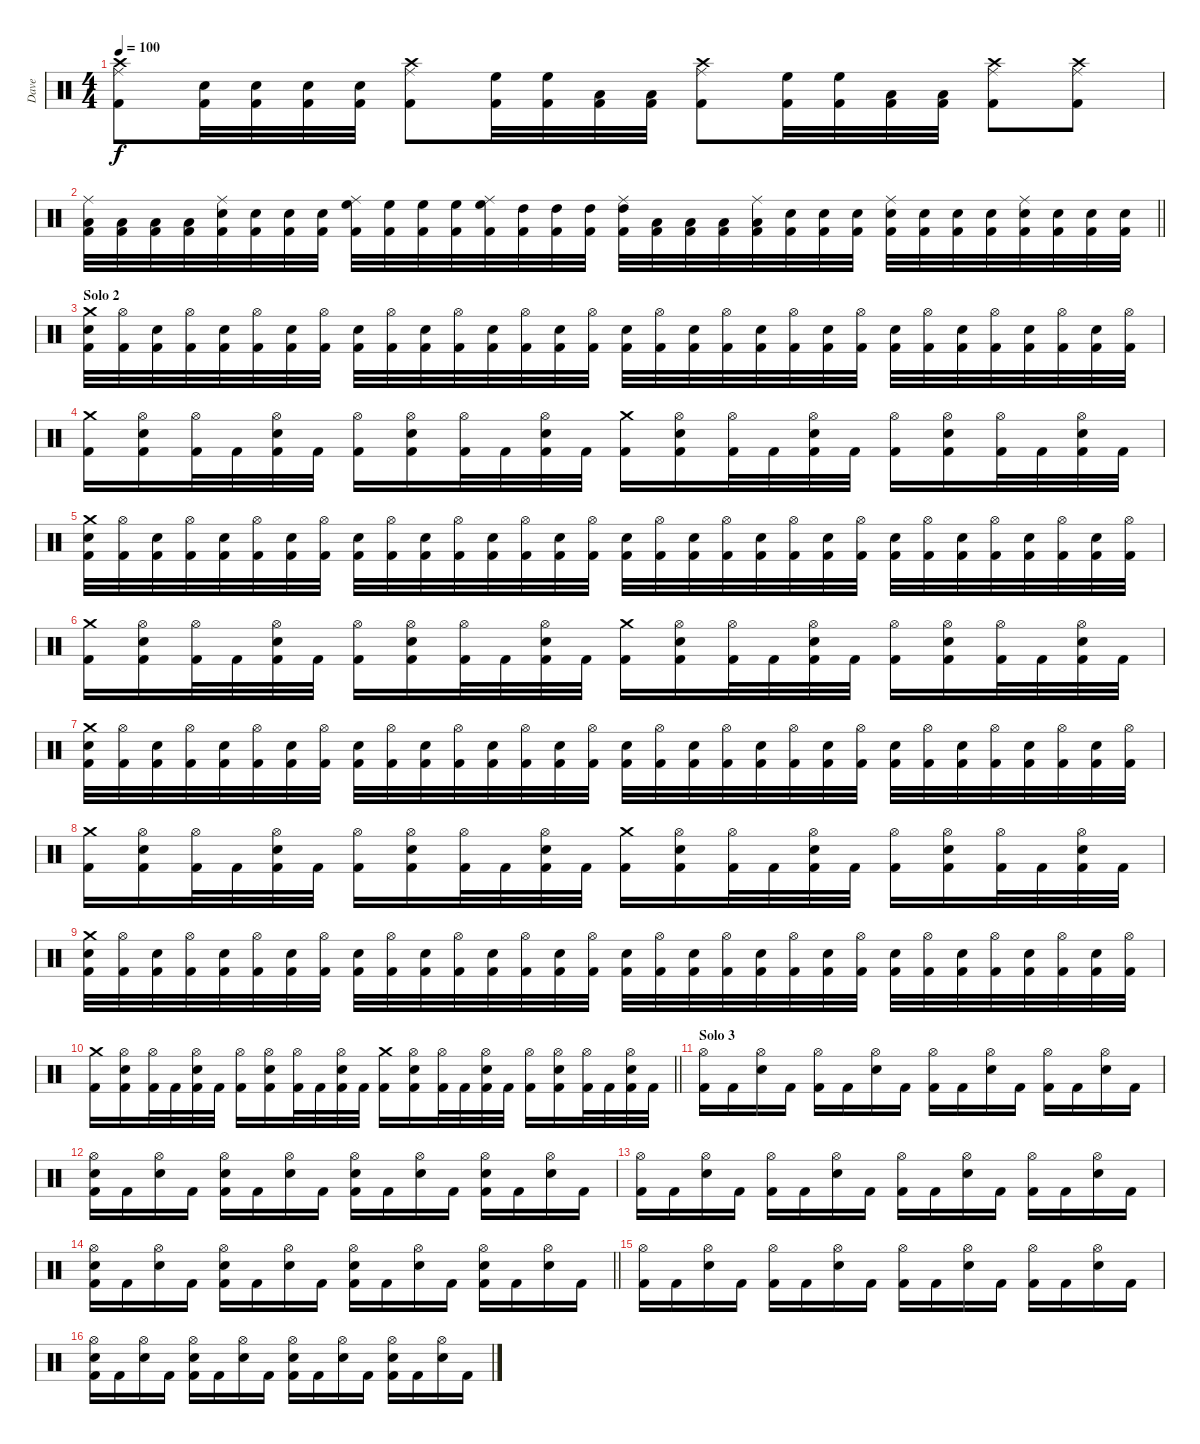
\track ("Dave" "Dave") {instrument percussion}
\staff {score}
\articulation defaults
\ts (4 4)
\tempo 100
\clef neutral
\ks c
("Ride (middle)" "Crash high (hit)" "Kick (hit) 2").8{dy f} ("Snare (hit) 2" "Kick (hit) 2").32 ("Snare (hit) 2" "Kick (hit) 2").32 ("Snare (hit) 2" "Kick (hit) 2").32 ("Snare (hit) 2" "Kick (hit) 2").32 ("Ride (middle)" "Crash high (hit)" "Kick (hit) 2").8 ("High Floor Tom (hit)" "Kick (hit) 2").32 ("High Floor Tom (hit)" "Kick (hit) 2").32 ("Low Floor Tom (hit)" "Kick (hit) 2").32 ("Low Floor Tom (hit)" "Kick (hit) 2").32 ("Ride (middle)" "Crash high (hit)" "Kick (hit) 2").8 ("High Floor Tom (hit)" "Kick (hit) 2").32 ("High Floor Tom (hit)" "Kick (hit) 2").32 ("Low Floor Tom (hit)" "Kick (hit) 2").32 ("Low Floor Tom (hit)" "Kick (hit) 2").32 ("Ride (middle)" "Crash high (hit)" "Kick (hit) 2").8 ("Ride (middle)" "Crash high (hit)" "Kick (hit) 2").8 |
\barLineRight lightlight
("Ride (middle)" "Low Floor Tom (hit)" "Kick (hit) 2").32 ("Low Floor Tom (hit)" "Kick (hit) 2").32 ("Low Floor Tom (hit)" "Kick (hit) 2").32 ("Low Floor Tom (hit)" "Kick (hit) 2").32 ("Ride (middle)" "Snare (hit) 2" "Kick (hit) 2").32 ("Snare (hit) 2" "Kick (hit) 2").32 ("Snare (hit) 2" "Kick (hit) 2").32 ("Snare (hit) 2" "Kick (hit) 2").32 ("Ride (middle)" "High Floor Tom (hit)" "Kick (hit) 2").32 ("High Floor Tom (hit)" "Kick (hit) 2").32 ("High Floor Tom (hit)" "Kick (hit) 2").32 ("High Floor Tom (hit)" "Kick (hit) 2").32 ("Ride (middle)" "High Floor Tom (hit)" "Kick (hit) 2").32 ("High Tom (hit)" "Kick (hit) 2").32 ("High Tom (hit)" "Kick (hit) 2").32 ("High Tom (hit)" "Kick (hit) 2").32 ("Ride (middle)" "High Tom (hit)" "Kick (hit) 2").32 ("Low Floor Tom (hit)" "Kick (hit) 2").32 ("Low Floor Tom (hit)" "Kick (hit) 2").32 ("Low Floor Tom (hit)" "Kick (hit) 2").32 ("Ride (middle)" "Low Floor Tom (hit)" "Kick (hit) 2").32 ("Snare (hit) 2" "Kick (hit) 2").32 ("Snare (hit) 2" "Kick (hit) 2").32 ("Snare (hit) 2" "Kick (hit) 2").32 ("Ride (middle)" "Snare (hit) 2" "Kick (hit) 2").32 ("Snare (hit) 2" "Kick (hit) 2").32 ("Snare (hit) 2" "Kick (hit) 2").32 ("Snare (hit) 2" "Kick (hit) 2").32 ("Ride (middle)" "Snare (hit) 2" "Kick (hit) 2").32 ("Snare (hit) 2" "Kick (hit) 2").32 ("Snare (hit) 2" "Kick (hit) 2").32 ("Snare (hit) 2" "Kick (hit) 2").32 |
\section ("" "Solo 2")
("Crash medium (hit)" "Snare (hit) 2" "Kick (hit) 2").32 ("Hi-Hat (open)" "Kick (hit) 2").32 ("Snare (hit) 2" "Kick (hit) 2").32 ("Hi-Hat (open)" "Kick (hit) 2").32 ("Snare (hit) 2" "Kick (hit) 2").32 ("Hi-Hat (open)" "Kick (hit) 2").32 ("Snare (hit) 2" "Kick (hit) 2").32 ("Hi-Hat (open)" "Kick (hit) 2").32 ("Snare (hit) 2" "Kick (hit) 2").32 ("Hi-Hat (open)" "Kick (hit) 2").32 ("Snare (hit) 2" "Kick (hit) 2").32 ("Hi-Hat (open)" "Kick (hit) 2").32 ("Snare (hit) 2" "Kick (hit) 2").32 ("Hi-Hat (open)" "Kick (hit) 2").32 ("Snare (hit) 2" "Kick (hit) 2").32 ("Hi-Hat (open)" "Kick (hit) 2").32 ("Snare (hit) 2" "Kick (hit) 2").32 ("Hi-Hat (open)" "Kick (hit) 2").32 ("Snare (hit) 2" "Kick (hit) 2").32 ("Hi-Hat (open)" "Kick (hit) 2").32 ("Snare (hit) 2" "Kick (hit) 2").32 ("Hi-Hat (open)" "Kick (hit) 2").32 ("Snare (hit) 2" "Kick (hit) 2").32 ("Hi-Hat (open)" "Kick (hit) 2").32 ("Snare (hit) 2" "Kick (hit) 2").32 ("Hi-Hat (open)" "Kick (hit) 2").32 ("Snare (hit) 2" "Kick (hit) 2").32 ("Hi-Hat (open)" "Kick (hit) 2").32 ("Snare (hit) 2" "Kick (hit) 2").32 ("Hi-Hat (open)" "Kick (hit) 2").32 ("Snare (hit) 2" "Kick (hit) 2").32 ("Hi-Hat (open)" "Kick (hit) 2").32 |
("Crash medium (hit)" "Kick (hit) 2").16 ("Hi-Hat (open)" "Snare (hit) 2" "Kick (hit) 2").16 ("Hi-Hat (open)" "Kick (hit) 2").32 "Kick (hit) 2".32 ("Hi-Hat (open)" "Snare (hit) 2" "Kick (hit) 2").32 "Kick (hit) 2".32 ("Hi-Hat (open)" "Kick (hit) 2").16 ("Hi-Hat (open)" "Snare (hit) 2" "Kick (hit) 2").16 ("Hi-Hat (open)" "Kick (hit) 2").32 "Kick (hit) 2".32 ("Hi-Hat (open)" "Snare (hit) 2" "Kick (hit) 2").32 "Kick (hit) 2".32 ("Crash medium (hit)" "Kick (hit) 2").16 ("Hi-Hat (open)" "Snare (hit) 2" "Kick (hit) 2").16 ("Hi-Hat (open)" "Kick (hit) 2").32 "Kick (hit) 2".32 ("Hi-Hat (open)" "Snare (hit) 2" "Kick (hit) 2").32 "Kick (hit) 2".32 ("Hi-Hat (open)" "Kick (hit) 2").16 ("Hi-Hat (open)" "Snare (hit) 2" "Kick (hit) 2").16 ("Hi-Hat (open)" "Kick (hit) 2").32 "Kick (hit) 2".32 ("Hi-Hat (open)" "Snare (hit) 2" "Kick (hit) 2").32 "Kick (hit) 2".32 |
("Crash medium (hit)" "Snare (hit) 2" "Kick (hit) 2").32 ("Hi-Hat (open)" "Kick (hit) 2").32 ("Snare (hit) 2" "Kick (hit) 2").32 ("Hi-Hat (open)" "Kick (hit) 2").32 ("Snare (hit) 2" "Kick (hit) 2").32 ("Hi-Hat (open)" "Kick (hit) 2").32 ("Snare (hit) 2" "Kick (hit) 2").32 ("Hi-Hat (open)" "Kick (hit) 2").32 ("Snare (hit) 2" "Kick (hit) 2").32 ("Hi-Hat (open)" "Kick (hit) 2").32 ("Snare (hit) 2" "Kick (hit) 2").32 ("Hi-Hat (open)" "Kick (hit) 2").32 ("Snare (hit) 2" "Kick (hit) 2").32 ("Hi-Hat (open)" "Kick (hit) 2").32 ("Snare (hit) 2" "Kick (hit) 2").32 ("Hi-Hat (open)" "Kick (hit) 2").32 ("Snare (hit) 2" "Kick (hit) 2").32 ("Hi-Hat (open)" "Kick (hit) 2").32 ("Snare (hit) 2" "Kick (hit) 2").32 ("Hi-Hat (open)" "Kick (hit) 2").32 ("Snare (hit) 2" "Kick (hit) 2").32 ("Hi-Hat (open)" "Kick (hit) 2").32 ("Snare (hit) 2" "Kick (hit) 2").32 ("Hi-Hat (open)" "Kick (hit) 2").32 ("Snare (hit) 2" "Kick (hit) 2").32 ("Hi-Hat (open)" "Kick (hit) 2").32 ("Snare (hit) 2" "Kick (hit) 2").32 ("Hi-Hat (open)" "Kick (hit) 2").32 ("Snare (hit) 2" "Kick (hit) 2").32 ("Hi-Hat (open)" "Kick (hit) 2").32 ("Snare (hit) 2" "Kick (hit) 2").32 ("Hi-Hat (open)" "Kick (hit) 2").32 |
("Crash medium (hit)" "Kick (hit) 2").16 ("Hi-Hat (open)" "Snare (hit) 2" "Kick (hit) 2").16 ("Hi-Hat (open)" "Kick (hit) 2").32 "Kick (hit) 2".32 ("Hi-Hat (open)" "Snare (hit) 2" "Kick (hit) 2").32 "Kick (hit) 2".32 ("Hi-Hat (open)" "Kick (hit) 2").16 ("Hi-Hat (open)" "Snare (hit) 2" "Kick (hit) 2").16 ("Hi-Hat (open)" "Kick (hit) 2").32 "Kick (hit) 2".32 ("Hi-Hat (open)" "Snare (hit) 2" "Kick (hit) 2").32 "Kick (hit) 2".32 ("Crash medium (hit)" "Kick (hit) 2").16 ("Hi-Hat (open)" "Snare (hit) 2" "Kick (hit) 2").16 ("Hi-Hat (open)" "Kick (hit) 2").32 "Kick (hit) 2".32 ("Hi-Hat (open)" "Snare (hit) 2" "Kick (hit) 2").32 "Kick (hit) 2".32 ("Hi-Hat (open)" "Kick (hit) 2").16 ("Hi-Hat (open)" "Snare (hit) 2" "Kick (hit) 2").16 ("Hi-Hat (open)" "Kick (hit) 2").32 "Kick (hit) 2".32 ("Hi-Hat (open)" "Snare (hit) 2" "Kick (hit) 2").32 "Kick (hit) 2".32 |
("Crash medium (hit)" "Snare (hit) 2" "Kick (hit) 2").32 ("Hi-Hat (open)" "Kick (hit) 2").32 ("Snare (hit) 2" "Kick (hit) 2").32 ("Hi-Hat (open)" "Kick (hit) 2").32 ("Snare (hit) 2" "Kick (hit) 2").32 ("Hi-Hat (open)" "Kick (hit) 2").32 ("Snare (hit) 2" "Kick (hit) 2").32 ("Hi-Hat (open)" "Kick (hit) 2").32 ("Snare (hit) 2" "Kick (hit) 2").32 ("Hi-Hat (open)" "Kick (hit) 2").32 ("Snare (hit) 2" "Kick (hit) 2").32 ("Hi-Hat (open)" "Kick (hit) 2").32 ("Snare (hit) 2" "Kick (hit) 2").32 ("Hi-Hat (open)" "Kick (hit) 2").32 ("Snare (hit) 2" "Kick (hit) 2").32 ("Hi-Hat (open)" "Kick (hit) 2").32 ("Snare (hit) 2" "Kick (hit) 2").32 ("Hi-Hat (open)" "Kick (hit) 2").32 ("Snare (hit) 2" "Kick (hit) 2").32 ("Hi-Hat (open)" "Kick (hit) 2").32 ("Snare (hit) 2" "Kick (hit) 2").32 ("Hi-Hat (open)" "Kick (hit) 2").32 ("Snare (hit) 2" "Kick (hit) 2").32 ("Hi-Hat (open)" "Kick (hit) 2").32 ("Snare (hit) 2" "Kick (hit) 2").32 ("Hi-Hat (open)" "Kick (hit) 2").32 ("Snare (hit) 2" "Kick (hit) 2").32 ("Hi-Hat (open)" "Kick (hit) 2").32 ("Snare (hit) 2" "Kick (hit) 2").32 ("Hi-Hat (open)" "Kick (hit) 2").32 ("Snare (hit) 2" "Kick (hit) 2").32 ("Hi-Hat (open)" "Kick (hit) 2").32 |
("Crash medium (hit)" "Kick (hit) 2").16 ("Hi-Hat (open)" "Snare (hit) 2" "Kick (hit) 2").16 ("Hi-Hat (open)" "Kick (hit) 2").32 "Kick (hit) 2".32 ("Hi-Hat (open)" "Snare (hit) 2" "Kick (hit) 2").32 "Kick (hit) 2".32 ("Hi-Hat (open)" "Kick (hit) 2").16 ("Hi-Hat (open)" "Snare (hit) 2" "Kick (hit) 2").16 ("Hi-Hat (open)" "Kick (hit) 2").32 "Kick (hit) 2".32 ("Hi-Hat (open)" "Snare (hit) 2" "Kick (hit) 2").32 "Kick (hit) 2".32 ("Crash medium (hit)" "Kick (hit) 2").16 ("Hi-Hat (open)" "Snare (hit) 2" "Kick (hit) 2").16 ("Hi-Hat (open)" "Kick (hit) 2").32 "Kick (hit) 2".32 ("Hi-Hat (open)" "Snare (hit) 2" "Kick (hit) 2").32 "Kick (hit) 2".32 ("Hi-Hat (open)" "Kick (hit) 2").16 ("Hi-Hat (open)" "Snare (hit) 2" "Kick (hit) 2").16 ("Hi-Hat (open)" "Kick (hit) 2").32 "Kick (hit) 2".32 ("Hi-Hat (open)" "Snare (hit) 2" "Kick (hit) 2").32 "Kick (hit) 2".32 |
("Crash medium (hit)" "Snare (hit) 2" "Kick (hit) 2").32 ("Hi-Hat (open)" "Kick (hit) 2").32 ("Snare (hit) 2" "Kick (hit) 2").32 ("Hi-Hat (open)" "Kick (hit) 2").32 ("Snare (hit) 2" "Kick (hit) 2").32 ("Hi-Hat (open)" "Kick (hit) 2").32 ("Snare (hit) 2" "Kick (hit) 2").32 ("Hi-Hat (open)" "Kick (hit) 2").32 ("Snare (hit) 2" "Kick (hit) 2").32 ("Hi-Hat (open)" "Kick (hit) 2").32 ("Snare (hit) 2" "Kick (hit) 2").32 ("Hi-Hat (open)" "Kick (hit) 2").32 ("Snare (hit) 2" "Kick (hit) 2").32 ("Hi-Hat (open)" "Kick (hit) 2").32 ("Snare (hit) 2" "Kick (hit) 2").32 ("Hi-Hat (open)" "Kick (hit) 2").32 ("Snare (hit) 2" "Kick (hit) 2").32 ("Hi-Hat (open)" "Kick (hit) 2").32 ("Snare (hit) 2" "Kick (hit) 2").32 ("Hi-Hat (open)" "Kick (hit) 2").32 ("Snare (hit) 2" "Kick (hit) 2").32 ("Hi-Hat (open)" "Kick (hit) 2").32 ("Snare (hit) 2" "Kick (hit) 2").32 ("Hi-Hat (open)" "Kick (hit) 2").32 ("Snare (hit) 2" "Kick (hit) 2").32 ("Hi-Hat (open)" "Kick (hit) 2").32 ("Snare (hit) 2" "Kick (hit) 2").32 ("Hi-Hat (open)" "Kick (hit) 2").32 ("Snare (hit) 2" "Kick (hit) 2").32 ("Hi-Hat (open)" "Kick (hit) 2").32 ("Snare (hit) 2" "Kick (hit) 2").32 ("Hi-Hat (open)" "Kick (hit) 2").32 |
\barLineRight lightlight
("Crash medium (hit)" "Kick (hit) 2").16 ("Hi-Hat (open)" "Snare (hit) 2" "Kick (hit) 2").16 ("Hi-Hat (open)" "Kick (hit) 2").32 "Kick (hit) 2".32 ("Hi-Hat (open)" "Snare (hit) 2" "Kick (hit) 2").32 "Kick (hit) 2".32 ("Hi-Hat (open)" "Kick (hit) 2").16 ("Hi-Hat (open)" "Snare (hit) 2" "Kick (hit) 2").16 ("Hi-Hat (open)" "Kick (hit) 2").32 "Kick (hit) 2".32 ("Hi-Hat (open)" "Snare (hit) 2" "Kick (hit) 2").32 "Kick (hit) 2".32 ("Crash medium (hit)" "Kick (hit) 2").16 ("Hi-Hat (open)" "Snare (hit) 2" "Kick (hit) 2").16 ("Hi-Hat (open)" "Kick (hit) 2").32 "Kick (hit) 2".32 ("Hi-Hat (open)" "Snare (hit) 2" "Kick (hit) 2").32 "Kick (hit) 2".32 ("Hi-Hat (open)" "Kick (hit) 2").16 ("Hi-Hat (open)" "Snare (hit) 2" "Kick (hit) 2").16 ("Hi-Hat (open)" "Kick (hit) 2").32 "Kick (hit) 2".32 ("Hi-Hat (open)" "Snare (hit) 2" "Kick (hit) 2").32 "Kick (hit) 2".32 |
\section ("" "Solo 3")
("Hi-Hat (open)" "Kick (hit) 2").16 "Kick (hit) 2".16 ("Hi-Hat (open)" "Snare (hit) 2").16 "Kick (hit) 2".16 ("Hi-Hat (open)" "Kick (hit) 2").16 "Kick (hit) 2".16 ("Hi-Hat (open)" "Snare (hit) 2").16 "Kick (hit) 2".16 ("Hi-Hat (open)" "Kick (hit) 2").16 "Kick (hit) 2".16 ("Hi-Hat (open)" "Snare (hit) 2").16 "Kick (hit) 2".16 ("Hi-Hat (open)" "Kick (hit) 2").16 "Kick (hit) 2".16 ("Hi-Hat (open)" "Snare (hit) 2").16 "Kick (hit) 2".16 |
("Hi-Hat (open)" "Snare (hit) 2" "Kick (hit) 2").16 "Kick (hit) 2".16 ("Hi-Hat (open)" "Snare (hit) 2").16 "Kick (hit) 2".16 ("Hi-Hat (open)" "Snare (hit) 2" "Kick (hit) 2").16 "Kick (hit) 2".16 ("Hi-Hat (open)" "Snare (hit) 2").16 "Kick (hit) 2".16 ("Hi-Hat (open)" "Snare (hit) 2" "Kick (hit) 2").16 "Kick (hit) 2".16 ("Hi-Hat (open)" "Snare (hit) 2").16 "Kick (hit) 2".16 ("Hi-Hat (open)" "Snare (hit) 2" "Kick (hit) 2").16 "Kick (hit) 2".16 ("Hi-Hat (open)" "Snare (hit) 2").16 "Kick (hit) 2".16 |
("Hi-Hat (open)" "Kick (hit) 2").16 "Kick (hit) 2".16 ("Hi-Hat (open)" "Snare (hit) 2").16 "Kick (hit) 2".16 ("Hi-Hat (open)" "Kick (hit) 2").16 "Kick (hit) 2".16 ("Hi-Hat (open)" "Snare (hit) 2").16 "Kick (hit) 2".16 ("Hi-Hat (open)" "Kick (hit) 2").16 "Kick (hit) 2".16 ("Hi-Hat (open)" "Snare (hit) 2").16 "Kick (hit) 2".16 ("Hi-Hat (open)" "Kick (hit) 2").16 "Kick (hit) 2".16 ("Hi-Hat (open)" "Snare (hit) 2").16 "Kick (hit) 2".16 |
\barLineRight lightlight
("Hi-Hat (open)" "Snare (hit) 2" "Kick (hit) 2").16 "Kick (hit) 2".16 ("Hi-Hat (open)" "Snare (hit) 2").16 "Kick (hit) 2".16 ("Hi-Hat (open)" "Snare (hit) 2" "Kick (hit) 2").16 "Kick (hit) 2".16 ("Hi-Hat (open)" "Snare (hit) 2").16 "Kick (hit) 2".16 ("Hi-Hat (open)" "Snare (hit) 2" "Kick (hit) 2").16 "Kick (hit) 2".16 ("Hi-Hat (open)" "Snare (hit) 2").16 "Kick (hit) 2".16 ("Hi-Hat (open)" "Snare (hit) 2" "Kick (hit) 2").16 "Kick (hit) 2".16 ("Hi-Hat (open)" "Snare (hit) 2").16 "Kick (hit) 2".16 |
("Hi-Hat (open)" "Kick (hit) 2").16 "Kick (hit) 2".16 ("Hi-Hat (open)" "Snare (hit) 2").16 "Kick (hit) 2".16 ("Hi-Hat (open)" "Kick (hit) 2").16 "Kick (hit) 2".16 ("Hi-Hat (open)" "Snare (hit) 2").16 "Kick (hit) 2".16 ("Hi-Hat (open)" "Kick (hit) 2").16 "Kick (hit) 2".16 ("Hi-Hat (open)" "Snare (hit) 2").16 "Kick (hit) 2".16 ("Hi-Hat (open)" "Kick (hit) 2").16 "Kick (hit) 2".16 ("Hi-Hat (open)" "Snare (hit) 2").16 "Kick (hit) 2".16 |
("Hi-Hat (open)" "Snare (hit) 2" "Kick (hit) 2").16 "Kick (hit) 2".16 ("Hi-Hat (open)" "Snare (hit) 2").16 "Kick (hit) 2".16 ("Hi-Hat (open)" "Snare (hit) 2" "Kick (hit) 2").16 "Kick (hit) 2".16 ("Hi-Hat (open)" "Snare (hit) 2").16 "Kick (hit) 2".16 ("Hi-Hat (open)" "Snare (hit) 2" "Kick (hit) 2").16 "Kick (hit) 2".16 ("Hi-Hat (open)" "Snare (hit) 2").16 "Kick (hit) 2".16 ("Hi-Hat (open)" "Snare (hit) 2" "Kick (hit) 2").16 "Kick (hit) 2".16 ("Hi-Hat (open)" "Snare (hit) 2").16 "Kick (hit) 2".16
